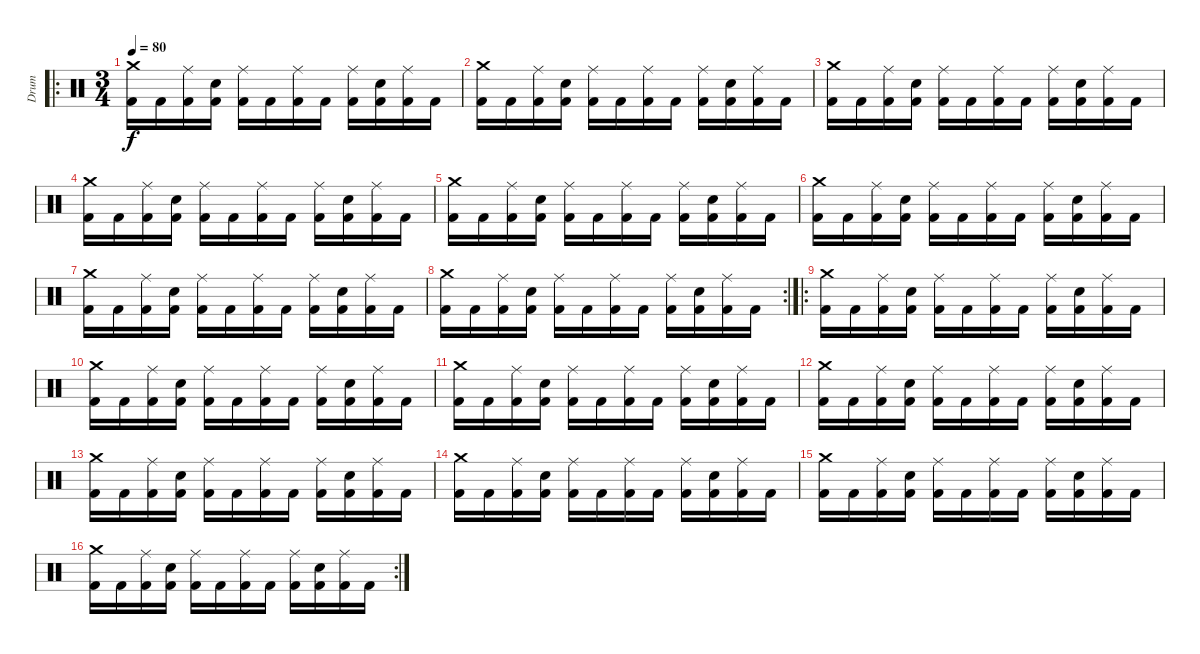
\track ("Drum" "Drum") {instrument percussion}
\staff {score}
\articulation defaults
\ro
\ts (3 4)
\tempo 80
\clef neutral
\ks c
("Kick (hit) 2" "Crash medium (hit)").16{dy f} "Kick (hit) 2".16 ("Kick (hit) 2" "Ride (middle)").16 ("Kick (hit) 2" "Snare (hit) 2").16 ("Kick (hit) 2" "Ride (middle)").16 "Kick (hit) 2".16 ("Kick (hit) 2" "Ride (middle)").16 "Kick (hit) 2".16 ("Kick (hit) 2" "Ride (middle)").16 ("Kick (hit) 2" "Snare (hit) 2").16 ("Kick (hit) 2" "Ride (middle)").16 "Kick (hit) 2".16 |
("Kick (hit) 2" "Crash medium (hit)").16 "Kick (hit) 2".16 ("Kick (hit) 2" "Ride (middle)").16 ("Kick (hit) 2" "Snare (hit) 2").16 ("Kick (hit) 2" "Ride (middle)").16 "Kick (hit) 2".16 ("Kick (hit) 2" "Ride (middle)").16 "Kick (hit) 2".16 ("Kick (hit) 2" "Ride (middle)").16 ("Kick (hit) 2" "Snare (hit) 2").16 ("Kick (hit) 2" "Ride (middle)").16 "Kick (hit) 2".16 |
("Kick (hit) 2" "Crash medium (hit)").16 "Kick (hit) 2".16 ("Kick (hit) 2" "Ride (middle)").16 ("Kick (hit) 2" "Snare (hit) 2").16 ("Kick (hit) 2" "Ride (middle)").16 "Kick (hit) 2".16 ("Kick (hit) 2" "Ride (middle)").16 "Kick (hit) 2".16 ("Kick (hit) 2" "Ride (middle)").16 ("Kick (hit) 2" "Snare (hit) 2").16 ("Kick (hit) 2" "Ride (middle)").16 "Kick (hit) 2".16 |
("Kick (hit) 2" "Crash medium (hit)").16 "Kick (hit) 2".16 ("Kick (hit) 2" "Ride (middle)").16 ("Kick (hit) 2" "Snare (hit) 2").16 ("Kick (hit) 2" "Ride (middle)").16 "Kick (hit) 2".16 ("Kick (hit) 2" "Ride (middle)").16 "Kick (hit) 2".16 ("Kick (hit) 2" "Ride (middle)").16 ("Kick (hit) 2" "Snare (hit) 2").16 ("Kick (hit) 2" "Ride (middle)").16 "Kick (hit) 2".16 |
("Kick (hit) 2" "Crash medium (hit)").16 "Kick (hit) 2".16 ("Kick (hit) 2" "Ride (middle)").16 ("Kick (hit) 2" "Snare (hit) 2").16 ("Kick (hit) 2" "Ride (middle)").16 "Kick (hit) 2".16 ("Kick (hit) 2" "Ride (middle)").16 "Kick (hit) 2".16 ("Kick (hit) 2" "Ride (middle)").16 ("Kick (hit) 2" "Snare (hit) 2").16 ("Kick (hit) 2" "Ride (middle)").16 "Kick (hit) 2".16 |
("Kick (hit) 2" "Crash medium (hit)").16 "Kick (hit) 2".16 ("Kick (hit) 2" "Ride (middle)").16 ("Kick (hit) 2" "Snare (hit) 2").16 ("Kick (hit) 2" "Ride (middle)").16 "Kick (hit) 2".16 ("Kick (hit) 2" "Ride (middle)").16 "Kick (hit) 2".16 ("Kick (hit) 2" "Ride (middle)").16 ("Kick (hit) 2" "Snare (hit) 2").16 ("Kick (hit) 2" "Ride (middle)").16 "Kick (hit) 2".16 |
("Kick (hit) 2" "Crash medium (hit)").16 "Kick (hit) 2".16 ("Kick (hit) 2" "Ride (middle)").16 ("Kick (hit) 2" "Snare (hit) 2").16 ("Kick (hit) 2" "Ride (middle)").16 "Kick (hit) 2".16 ("Kick (hit) 2" "Ride (middle)").16 "Kick (hit) 2".16 ("Kick (hit) 2" "Ride (middle)").16 ("Kick (hit) 2" "Snare (hit) 2").16 ("Kick (hit) 2" "Ride (middle)").16 "Kick (hit) 2".16 |
\rc 2
("Kick (hit) 2" "Crash medium (hit)").16 "Kick (hit) 2".16 ("Kick (hit) 2" "Ride (middle)").16 ("Kick (hit) 2" "Snare (hit) 2").16 ("Kick (hit) 2" "Ride (middle)").16 "Kick (hit) 2".16 ("Kick (hit) 2" "Ride (middle)").16 "Kick (hit) 2".16 ("Kick (hit) 2" "Ride (middle)").16 ("Kick (hit) 2" "Snare (hit) 2").16 ("Kick (hit) 2" "Ride (middle)").16 "Kick (hit) 2".16 |
\ro
("Kick (hit) 2" "Crash medium (hit)").16 "Kick (hit) 2".16 ("Kick (hit) 2" "Ride (middle)").16 ("Kick (hit) 2" "Snare (hit) 2").16 ("Kick (hit) 2" "Ride (middle)").16 "Kick (hit) 2".16 ("Kick (hit) 2" "Ride (middle)").16 "Kick (hit) 2".16 ("Kick (hit) 2" "Ride (middle)").16 ("Kick (hit) 2" "Snare (hit) 2").16 ("Kick (hit) 2" "Ride (middle)").16 "Kick (hit) 2".16 |
("Kick (hit) 2" "Crash medium (hit)").16 "Kick (hit) 2".16 ("Kick (hit) 2" "Ride (middle)").16 ("Kick (hit) 2" "Snare (hit) 2").16 ("Kick (hit) 2" "Ride (middle)").16 "Kick (hit) 2".16 ("Kick (hit) 2" "Ride (middle)").16 "Kick (hit) 2".16 ("Kick (hit) 2" "Ride (middle)").16 ("Kick (hit) 2" "Snare (hit) 2").16 ("Kick (hit) 2" "Ride (middle)").16 "Kick (hit) 2".16 |
("Kick (hit) 2" "Crash medium (hit)").16 "Kick (hit) 2".16 ("Kick (hit) 2" "Ride (middle)").16 ("Kick (hit) 2" "Snare (hit) 2").16 ("Kick (hit) 2" "Ride (middle)").16 "Kick (hit) 2".16 ("Kick (hit) 2" "Ride (middle)").16 "Kick (hit) 2".16 ("Kick (hit) 2" "Ride (middle)").16 ("Kick (hit) 2" "Snare (hit) 2").16 ("Kick (hit) 2" "Ride (middle)").16 "Kick (hit) 2".16 |
("Kick (hit) 2" "Crash medium (hit)").16 "Kick (hit) 2".16 ("Kick (hit) 2" "Ride (middle)").16 ("Kick (hit) 2" "Snare (hit) 2").16 ("Kick (hit) 2" "Ride (middle)").16 "Kick (hit) 2".16 ("Kick (hit) 2" "Ride (middle)").16 "Kick (hit) 2".16 ("Kick (hit) 2" "Ride (middle)").16 ("Kick (hit) 2" "Snare (hit) 2").16 ("Kick (hit) 2" "Ride (middle)").16 "Kick (hit) 2".16 |
("Kick (hit) 2" "Crash medium (hit)").16 "Kick (hit) 2".16 ("Kick (hit) 2" "Ride (middle)").16 ("Kick (hit) 2" "Snare (hit) 2").16 ("Kick (hit) 2" "Ride (middle)").16 "Kick (hit) 2".16 ("Kick (hit) 2" "Ride (middle)").16 "Kick (hit) 2".16 ("Kick (hit) 2" "Ride (middle)").16 ("Kick (hit) 2" "Snare (hit) 2").16 ("Kick (hit) 2" "Ride (middle)").16 "Kick (hit) 2".16 |
("Kick (hit) 2" "Crash medium (hit)").16 "Kick (hit) 2".16 ("Kick (hit) 2" "Ride (middle)").16 ("Kick (hit) 2" "Snare (hit) 2").16 ("Kick (hit) 2" "Ride (middle)").16 "Kick (hit) 2".16 ("Kick (hit) 2" "Ride (middle)").16 "Kick (hit) 2".16 ("Kick (hit) 2" "Ride (middle)").16 ("Kick (hit) 2" "Snare (hit) 2").16 ("Kick (hit) 2" "Ride (middle)").16 "Kick (hit) 2".16 |
("Kick (hit) 2" "Crash medium (hit)").16 "Kick (hit) 2".16 ("Kick (hit) 2" "Ride (middle)").16 ("Kick (hit) 2" "Snare (hit) 2").16 ("Kick (hit) 2" "Ride (middle)").16 "Kick (hit) 2".16 ("Kick (hit) 2" "Ride (middle)").16 "Kick (hit) 2".16 ("Kick (hit) 2" "Ride (middle)").16 ("Kick (hit) 2" "Snare (hit) 2").16 ("Kick (hit) 2" "Ride (middle)").16 "Kick (hit) 2".16 |
\rc 2
("Kick (hit) 2" "Crash medium (hit)").16 "Kick (hit) 2".16 ("Kick (hit) 2" "Ride (middle)").16 ("Kick (hit) 2" "Snare (hit) 2").16 ("Kick (hit) 2" "Ride (middle)").16 "Kick (hit) 2".16 ("Kick (hit) 2" "Ride (middle)").16 "Kick (hit) 2".16 ("Kick (hit) 2" "Ride (middle)").16 ("Kick (hit) 2" "Snare (hit) 2").16 ("Kick (hit) 2" "Ride (middle)").16 "Kick (hit) 2".16
